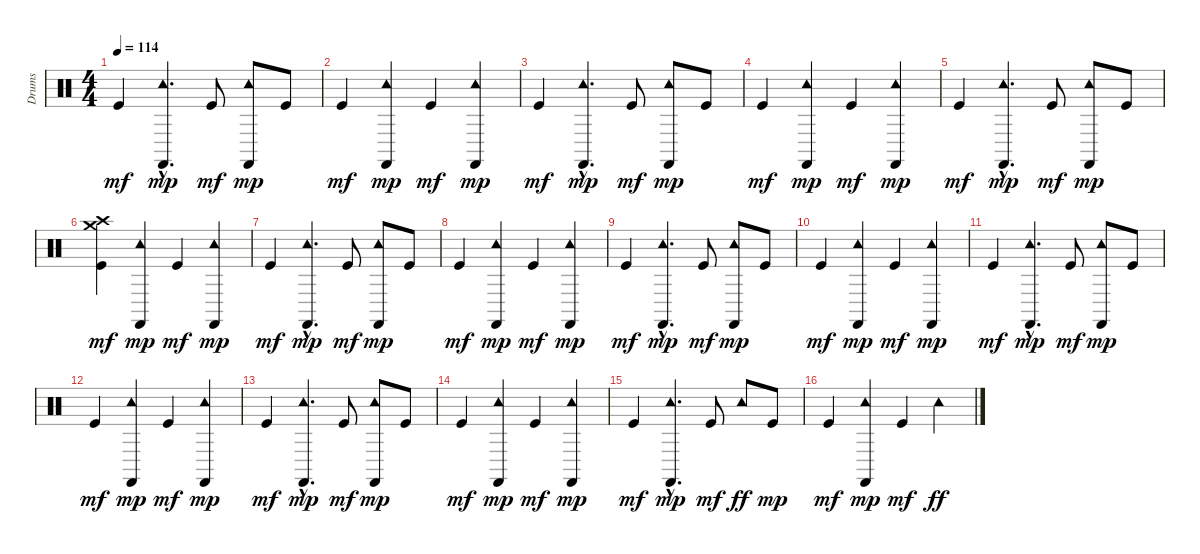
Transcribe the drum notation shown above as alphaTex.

\track ("Drums" "Drums") {instrument percussion}
\staff {score}
\articulation defaults
\ts (4 4)
\tempo 114
\clef neutral
\ks c "Kick (hit)".4{dy mf}
("Tambourine (hit)"{hac} "Castanets (hit)"{hac}).4{d dy mp} "Kick (hit)".8{dy mf} ("Tambourine (hit)" "Castanets (hit)").8{dy mp} "Kick (hit)".8 |
"Kick (hit)".4{dy mf} ("Tambourine (hit)" "Castanets (hit)").4{dy mp} "Kick (hit)".4{dy mf} ("Tambourine (hit)" "Castanets (hit)").4{dy mp} |
"Kick (hit)".4{dy mf} ("Tambourine (hit)"{hac} "Castanets (hit)"{hac}).4{d dy mp} "Kick (hit)".8{dy mf} ("Tambourine (hit)" "Castanets (hit)").8{dy mp} "Kick (hit)".8 |
"Kick (hit)".4{dy mf} ("Tambourine (hit)" "Castanets (hit)").4{dy mp} "Kick (hit)".4{dy mf} ("Tambourine (hit)" "Castanets (hit)").4{dy mp} |
"Kick (hit)".4{dy mf} ("Tambourine (hit)"{hac} "Castanets (hit)"{hac}).4{d dy mp} "Kick (hit)".8{dy mf} ("Tambourine (hit)" "Castanets (hit)").8{dy mp} "Kick (hit)".8 |
("Crash medium (hit)" "Crash high (hit)" "Kick (hit)").4{dy mf} ("Tambourine (hit)" "Castanets (hit)").4{dy mp} "Kick (hit)".4{dy mf} ("Tambourine (hit)" "Castanets (hit)").4{dy mp} |
"Kick (hit)".4{dy mf} ("Tambourine (hit)"{hac} "Castanets (hit)"{hac}).4{d dy mp} "Kick (hit)".8{dy mf} ("Tambourine (hit)" "Castanets (hit)").8{dy mp} "Kick (hit)".8 |
"Kick (hit)".4{dy mf} ("Tambourine (hit)" "Castanets (hit)").4{dy mp} "Kick (hit)".4{dy mf} ("Tambourine (hit)" "Castanets (hit)").4{dy mp} |
"Kick (hit)".4{dy mf} ("Tambourine (hit)"{hac} "Castanets (hit)"{hac}).4{d dy mp} "Kick (hit)".8{dy mf} ("Tambourine (hit)" "Castanets (hit)").8{dy mp} "Kick (hit)".8 |
"Kick (hit)".4{dy mf} ("Tambourine (hit)" "Castanets (hit)").4{dy mp} "Kick (hit)".4{dy mf} ("Tambourine (hit)" "Castanets (hit)").4{dy mp} |
"Kick (hit)".4{dy mf} ("Tambourine (hit)"{hac} "Castanets (hit)"{hac}).4{d dy mp} "Kick (hit)".8{dy mf} ("Tambourine (hit)" "Castanets (hit)").8{dy mp} "Kick (hit)".8 |
"Kick (hit)".4{dy mf} ("Tambourine (hit)" "Castanets (hit)").4{dy mp} "Kick (hit)".4{dy mf} ("Tambourine (hit)" "Castanets (hit)").4{dy mp} |
"Kick (hit)".4{dy mf} ("Tambourine (hit)"{hac} "Castanets (hit)"{hac}).4{d dy mp} "Kick (hit)".8{dy mf} ("Tambourine (hit)" "Castanets (hit)").8{dy mp} "Kick (hit)".8 |
"Kick (hit)".4{dy mf} ("Tambourine (hit)" "Castanets (hit)").4{dy mp} "Kick (hit)".4{dy mf} ("Tambourine (hit)" "Castanets (hit)").4{dy mp} |
"Kick (hit)".4{dy mf} ("Tambourine (hit)"{hac} "Castanets (hit)"{hac}).4{d dy mp} "Kick (hit)".8{dy mf} "Tambourine (hit)".8{dy ff} "Kick (hit)".8{dy mp} |
"Kick (hit)".4{dy mf} ("Tambourine (hit)" "Castanets (hit)").4{dy mp} "Kick (hit)".4{dy mf} "Tambourine (hit)".4{dy ff}
